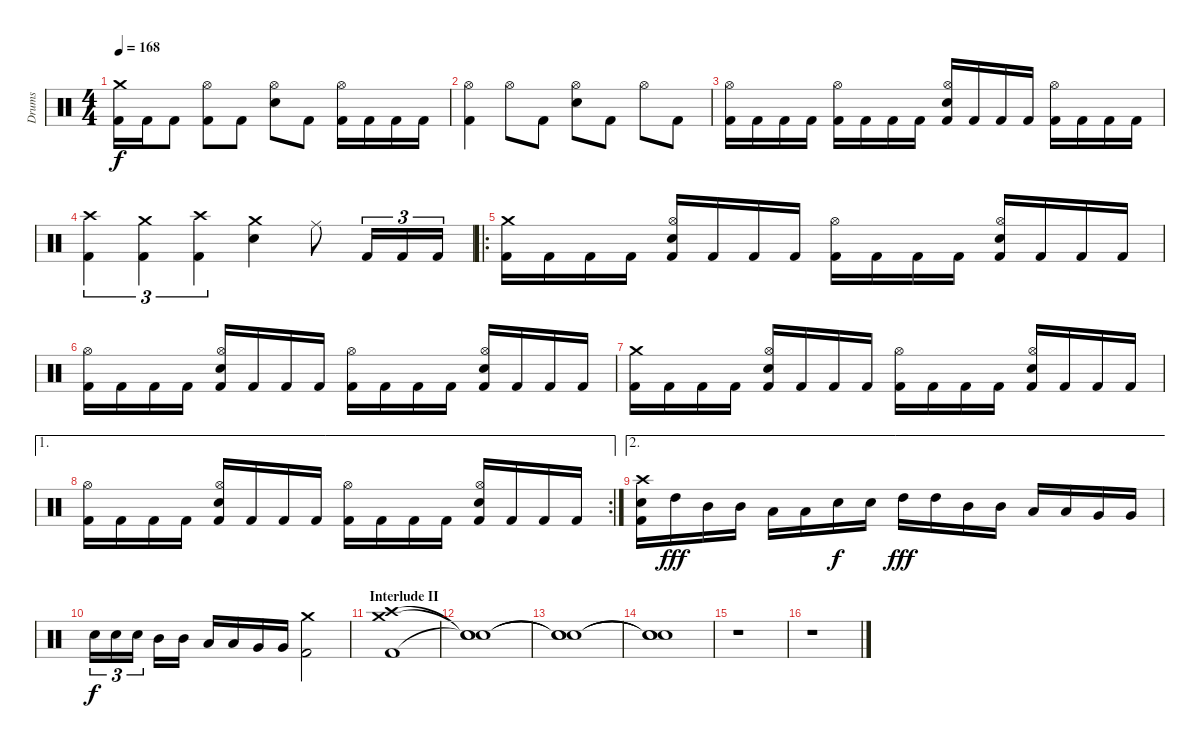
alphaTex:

\track ("Drums" "Drums") {instrument percussion}
\staff {score}
\articulation defaults
\ts (4 4)
\tempo 168
\clef neutral
\ks c
("Kick (hit) 2" "Crash medium (hit)").16{dy f} "Kick (hit) 2".16 "Kick (hit) 2".8 ("Kick (hit) 2" "Hi-Hat (open)").8 "Kick (hit) 2".8 ("Snare (hit) 2" "Hi-Hat (open)").8 "Kick (hit) 2".8 ("Kick (hit) 2" "Hi-Hat (open)").16 "Kick (hit) 2".16 "Kick (hit) 2".16 "Kick (hit) 2".16 |
("Kick (hit) 2" "Hi-Hat (open)").4 "Hi-Hat (open)".8 "Kick (hit) 2".8 ("Snare (hit) 2" "Hi-Hat (open)").8 "Kick (hit) 2".8 "Hi-Hat (open)".8 "Kick (hit) 2".8 |
("Kick (hit) 2" "Hi-Hat (open)").16 "Kick (hit) 2".16 "Kick (hit) 2".16 "Kick (hit) 2".16 ("Kick (hit) 2" "Hi-Hat (open)").16 "Kick (hit) 2".16 "Kick (hit) 2".16 "Kick (hit) 2".16 ("Kick (hit) 2" "Snare (hit) 2" "Hi-Hat (open)").16 "Kick (hit) 2".16 "Kick (hit) 2".16 "Kick (hit) 2".16 ("Kick (hit) 2" "Hi-Hat (open)").16 "Kick (hit) 2".16 "Kick (hit) 2".16 "Kick (hit) 2".16 |
("Kick (hit) 2" "Crash high (hit)").4{tu (3 2)} ("Kick (hit) 2" "Crash medium (hit)").4{tu (3 2)} ("Kick (hit) 2" "Crash high (hit)").4{tu (3 2)} ("Snare (hit) 2" "Crash medium (hit)").4 "Ride (middle)".8 "Kick (hit) 2".16{tu (3 2)} "Kick (hit) 2".16{tu (3 2)} "Kick (hit) 2".16{tu (3 2)} |
\ro
("Kick (hit) 2" "Crash medium (hit)").16 "Kick (hit) 2".16 "Kick (hit) 2".16 "Kick (hit) 2".16 ("Kick (hit) 2" "Snare (hit) 2" "Hi-Hat (open)").16 "Kick (hit) 2".16 "Kick (hit) 2".16 "Kick (hit) 2".16 ("Kick (hit) 2" "Hi-Hat (open)").16 "Kick (hit) 2".16 "Kick (hit) 2".16 "Kick (hit) 2".16 ("Kick (hit) 2" "Snare (hit) 2" "Hi-Hat (open)").16 "Kick (hit) 2".16 "Kick (hit) 2".16 "Kick (hit) 2".16 |
("Kick (hit) 2" "Hi-Hat (open)").16 "Kick (hit) 2".16 "Kick (hit) 2".16 "Kick (hit) 2".16 ("Kick (hit) 2" "Snare (hit) 2" "Hi-Hat (open)").16 "Kick (hit) 2".16 "Kick (hit) 2".16 "Kick (hit) 2".16 ("Kick (hit) 2" "Hi-Hat (open)").16 "Kick (hit) 2".16 "Kick (hit) 2".16 "Kick (hit) 2".16 ("Kick (hit) 2" "Snare (hit) 2" "Hi-Hat (open)").16 "Kick (hit) 2".16 "Kick (hit) 2".16 "Kick (hit) 2".16 |
("Kick (hit) 2" "Crash medium (hit)").16 "Kick (hit) 2".16 "Kick (hit) 2".16 "Kick (hit) 2".16 ("Kick (hit) 2" "Snare (hit) 2" "Hi-Hat (open)").16 "Kick (hit) 2".16 "Kick (hit) 2".16 "Kick (hit) 2".16 ("Kick (hit) 2" "Hi-Hat (open)").16 "Kick (hit) 2".16 "Kick (hit) 2".16 "Kick (hit) 2".16 ("Kick (hit) 2" "Snare (hit) 2" "Hi-Hat (open)").16 "Kick (hit) 2".16 "Kick (hit) 2".16 "Kick (hit) 2".16 |
\ae 1
\rc 2
("Kick (hit) 2" "Hi-Hat (open)").16 "Kick (hit) 2".16 "Kick (hit) 2".16 "Kick (hit) 2".16 ("Kick (hit) 2" "Snare (hit) 2" "Hi-Hat (open)").16 "Kick (hit) 2".16 "Kick (hit) 2".16 "Kick (hit) 2".16 ("Kick (hit) 2" "Hi-Hat (open)").16 "Kick (hit) 2".16 "Kick (hit) 2".16 "Kick (hit) 2".16 ("Kick (hit) 2" "Snare (hit) 2" "Hi-Hat (open)").16 "Kick (hit) 2".16 "Kick (hit) 2".16 "Kick (hit) 2".16 |
\ae 2
("Kick (hit) 2" "Snare (hit) 2" "Crash high (hit)").16 "High Tom (hit)".16{dy fff} "Mid Tom (hit)".16 "Mid Tom (hit)".16 "Low Tom (hit)".16 "Low Tom (hit)".16 "Electric Snare (hit)".16{dy f} "Electric Snare (hit)".16 "High Tom (hit)".16{dy fff} "High Tom (hit)".16 "Mid Tom (hit)".16 "Mid Tom (hit)".16 "Low Tom (hit)".16 "Low Tom (hit)".16 "Very Low Tom (hit)".16 "Very Low Tom (hit)".16 |
"Electric Snare (hit)".16{tu (3 2) dy f} "Electric Snare (hit)".16{tu (3 2)} "Electric Snare (hit)".16{tu (3 2)} "Mid Tom (hit)".16 "Mid Tom (hit)".16 "Low Tom (hit)".16 "Low Tom (hit)".16 "Very Low Tom (hit)".16 "Very Low Tom (hit)".16 ("Kick (hit) 2" "Crash medium (hit)").2 |
\section ("" "Interlude II")
("Kick (hit) 2" "Crash high (hit)" "Crash medium (hit)").1 |
("Snare (hit)"{t} "Snare (hit)"{t} "Snare (hit)"{t}).1 |
("Snare (hit)"{t} "Snare (hit)"{t} "Snare (hit)"{t}).1 |
("Snare (hit)"{t} "Snare (hit)"{t} "Snare (hit)"{t}).1 |
r.1 |
r.1
